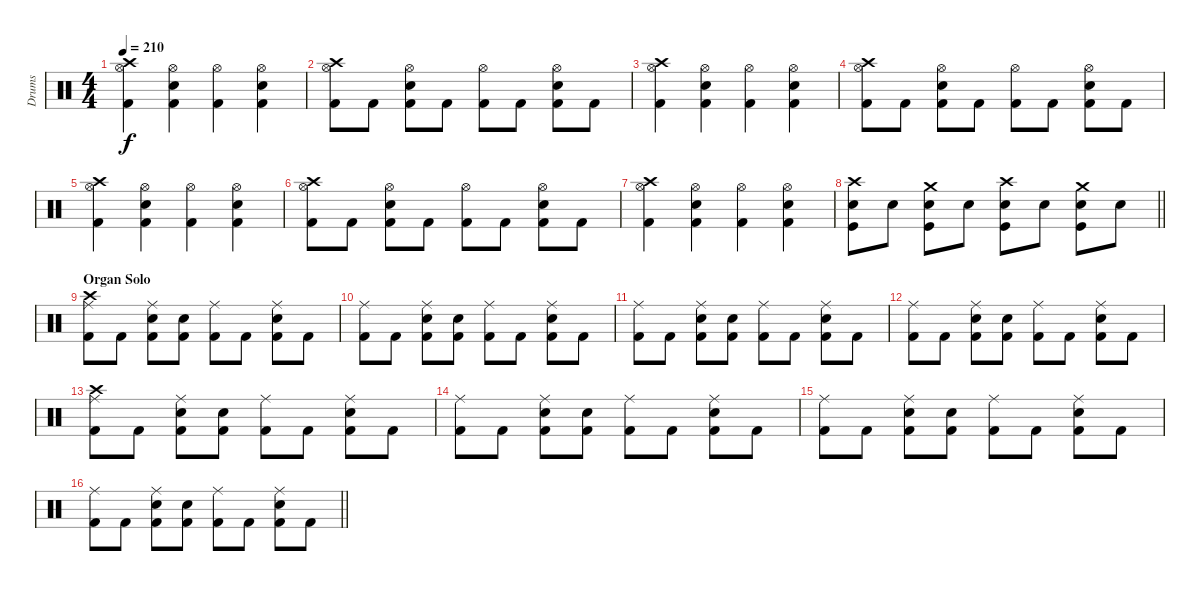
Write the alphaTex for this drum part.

\track ("Drums" "Drums") {instrument percussion}
\staff {score}
\articulation defaults
\ts (4 4)
\tempo 210
\clef neutral
\ks c
("Crash high (hit)" "Hi-Hat (open)" "Kick (hit) 2").4{dy f} ("Hi-Hat (open)" "Snare (hit) 2" "Kick (hit) 2").4 ("Hi-Hat (open)" "Kick (hit) 2").4 ("Hi-Hat (open)" "Snare (hit) 2" "Kick (hit) 2").4 |
("Crash high (hit)" "Hi-Hat (open)" "Kick (hit) 2").8 "Kick (hit) 2".8 ("Hi-Hat (open)" "Snare (hit) 2" "Kick (hit) 2").8 "Kick (hit) 2".8 ("Hi-Hat (open)" "Kick (hit) 2").8 "Kick (hit) 2".8 ("Hi-Hat (open)" "Snare (hit) 2" "Kick (hit) 2").8 "Kick (hit) 2".8 |
("Crash high (hit)" "Hi-Hat (open)" "Kick (hit) 2").4 ("Hi-Hat (open)" "Snare (hit) 2" "Kick (hit) 2").4 ("Hi-Hat (open)" "Kick (hit) 2").4 ("Hi-Hat (open)" "Snare (hit) 2" "Kick (hit) 2").4 |
("Crash high (hit)" "Hi-Hat (open)" "Kick (hit) 2").8 "Kick (hit) 2".8 ("Hi-Hat (open)" "Snare (hit) 2" "Kick (hit) 2").8 "Kick (hit) 2".8 ("Hi-Hat (open)" "Kick (hit) 2").8 "Kick (hit) 2".8 ("Hi-Hat (open)" "Snare (hit) 2" "Kick (hit) 2").8 "Kick (hit) 2".8 |
("Crash high (hit)" "Hi-Hat (open)" "Kick (hit) 2").4 ("Hi-Hat (open)" "Snare (hit) 2" "Kick (hit) 2").4 ("Hi-Hat (open)" "Kick (hit) 2").4 ("Hi-Hat (open)" "Snare (hit) 2" "Kick (hit) 2").4 |
("Crash high (hit)" "Hi-Hat (open)" "Kick (hit) 2").8 "Kick (hit) 2".8 ("Hi-Hat (open)" "Snare (hit) 2" "Kick (hit) 2").8 "Kick (hit) 2".8 ("Hi-Hat (open)" "Kick (hit) 2").8 "Kick (hit) 2".8 ("Hi-Hat (open)" "Snare (hit) 2" "Kick (hit) 2").8 "Kick (hit) 2".8 |
("Crash high (hit)" "Hi-Hat (open)" "Kick (hit) 2").4 ("Hi-Hat (open)" "Snare (hit) 2" "Kick (hit) 2").4 ("Hi-Hat (open)" "Kick (hit) 2").4 ("Hi-Hat (open)" "Snare (hit) 2" "Kick (hit) 2").4 |
\barLineRight lightlight
("Crash high (hit)" "Snare (hit) 2" "Kick (hit)").8 "Snare (hit) 2".8 ("Crash medium (hit)" "Snare (hit) 2" "Kick (hit)").8 "Snare (hit) 2".8 ("Crash high (hit)" "Snare (hit) 2" "Kick (hit)").8 "Snare (hit) 2".8 ("Crash medium (hit)" "Snare (hit) 2" "Kick (hit)").8 "Snare (hit) 2".8 |
\section ("" "Organ Solo")
("Crash high (hit)" "Ride (middle)" "Kick (hit) 2").8 "Kick (hit) 2".8 ("Ride (middle)" "Snare (hit) 2" "Kick (hit) 2").8 ("Snare (hit) 2" "Kick (hit) 2").8 ("Ride (middle)" "Kick (hit) 2").8 "Kick (hit) 2".8 ("Ride (middle)" "Snare (hit) 2" "Kick (hit) 2").8 "Kick (hit) 2".8 |
("Ride (middle)" "Kick (hit) 2").8 "Kick (hit) 2".8 ("Ride (middle)" "Snare (hit) 2" "Kick (hit) 2").8 ("Snare (hit) 2" "Kick (hit) 2").8 ("Ride (middle)" "Kick (hit) 2").8 "Kick (hit) 2".8 ("Ride (middle)" "Snare (hit) 2" "Kick (hit) 2").8 "Kick (hit) 2".8 |
("Ride (middle)" "Kick (hit) 2").8 "Kick (hit) 2".8 ("Ride (middle)" "Snare (hit) 2" "Kick (hit) 2").8 ("Snare (hit) 2" "Kick (hit) 2").8 ("Ride (middle)" "Kick (hit) 2").8 "Kick (hit) 2".8 ("Ride (middle)" "Snare (hit) 2" "Kick (hit) 2").8 "Kick (hit) 2".8 |
("Ride (middle)" "Kick (hit) 2").8 "Kick (hit) 2".8 ("Ride (middle)" "Snare (hit) 2" "Kick (hit) 2").8 ("Snare (hit) 2" "Kick (hit) 2").8 ("Ride (middle)" "Kick (hit) 2").8 "Kick (hit) 2".8 ("Ride (middle)" "Snare (hit) 2" "Kick (hit) 2").8 "Kick (hit) 2".8 |
("Crash high (hit)" "Ride (middle)" "Kick (hit) 2").8 "Kick (hit) 2".8 ("Ride (middle)" "Snare (hit) 2" "Kick (hit) 2").8 ("Snare (hit) 2" "Kick (hit) 2").8 ("Ride (middle)" "Kick (hit) 2").8 "Kick (hit) 2".8 ("Ride (middle)" "Snare (hit) 2" "Kick (hit) 2").8 "Kick (hit) 2".8 |
("Ride (middle)" "Kick (hit) 2").8 "Kick (hit) 2".8 ("Ride (middle)" "Snare (hit) 2" "Kick (hit) 2").8 ("Snare (hit) 2" "Kick (hit) 2").8 ("Ride (middle)" "Kick (hit) 2").8 "Kick (hit) 2".8 ("Ride (middle)" "Snare (hit) 2" "Kick (hit) 2").8 "Kick (hit) 2".8 |
("Ride (middle)" "Kick (hit) 2").8 "Kick (hit) 2".8 ("Ride (middle)" "Snare (hit) 2" "Kick (hit) 2").8 ("Snare (hit) 2" "Kick (hit) 2").8 ("Ride (middle)" "Kick (hit) 2").8 "Kick (hit) 2".8 ("Ride (middle)" "Snare (hit) 2" "Kick (hit) 2").8 "Kick (hit) 2".8 |
\barLineRight lightlight
("Ride (middle)" "Kick (hit) 2").8 "Kick (hit) 2".8 ("Ride (middle)" "Snare (hit) 2" "Kick (hit) 2").8 ("Snare (hit) 2" "Kick (hit) 2").8 ("Ride (middle)" "Kick (hit) 2").8 "Kick (hit) 2".8 ("Ride (middle)" "Snare (hit) 2" "Kick (hit) 2").8 "Kick (hit) 2".8
